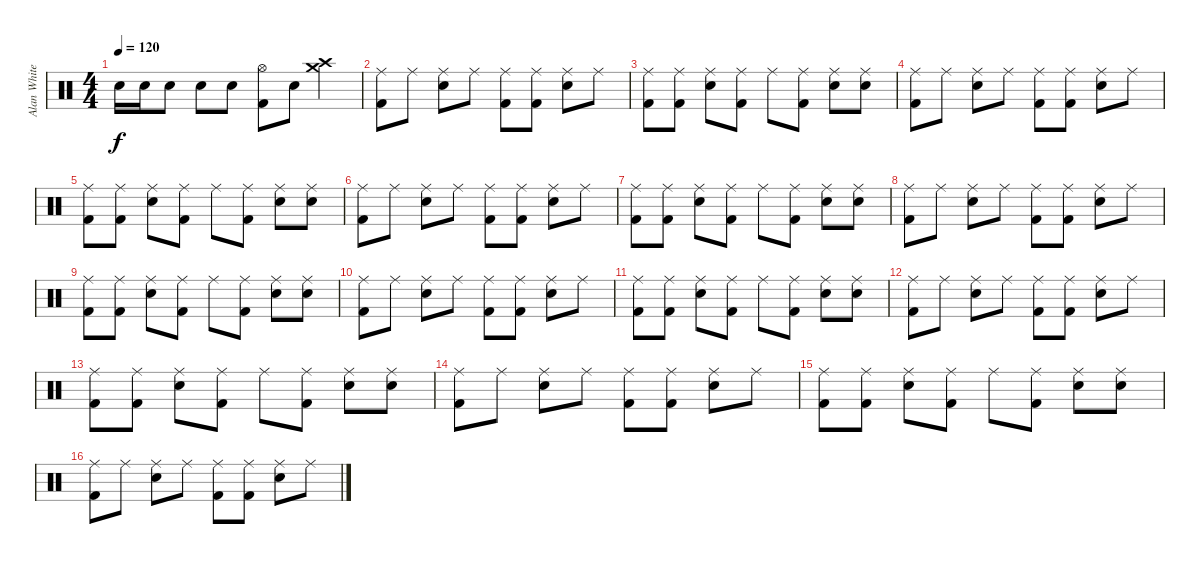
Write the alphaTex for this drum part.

\track ("Alan White - Drums" "Alan White") {instrument percussion}
\staff {score}
\articulation defaults
\ts (4 4)
\tempo 120
\clef neutral
\ks c "Electric Snare (hit)".16{dy f} "Electric Snare (hit)".16 "Electric Snare (hit)".8 "Electric Snare (hit)".8 "Electric Snare (hit)".8
("Hi-Hat (open)" "Kick (hit) 2").8 "Electric Snare (hit)".8 ("Crash medium (hit)" "Crash high (hit)").4 |
("Ride (middle)" "Kick (hit) 2").8 "Ride (middle)".8 ("Ride (middle)" "Electric Snare (hit)").8 "Ride (middle)".8 ("Ride (middle)" "Kick (hit) 2").8 ("Ride (middle)" "Kick (hit) 2").8 ("Ride (middle)" "Electric Snare (hit)").8 "Ride (middle)".8 |
("Ride (middle)" "Kick (hit) 2").8 ("Ride (middle)" "Kick (hit) 2").8 ("Ride (middle)" "Electric Snare (hit)").8 ("Ride (middle)" "Kick (hit) 2").8 "Ride (middle)".8 ("Ride (middle)" "Kick (hit) 2").8 ("Ride (middle)" "Electric Snare (hit)").8 ("Ride (middle)" "Electric Snare (hit)").8 |
("Ride (middle)" "Kick (hit) 2").8 "Ride (middle)".8 ("Ride (middle)" "Electric Snare (hit)").8 "Ride (middle)".8 ("Ride (middle)" "Kick (hit) 2").8 ("Ride (middle)" "Kick (hit) 2").8 ("Ride (middle)" "Electric Snare (hit)").8 "Ride (middle)".8 |
("Ride (middle)" "Kick (hit) 2").8 ("Ride (middle)" "Kick (hit) 2").8 ("Ride (middle)" "Electric Snare (hit)").8 ("Ride (middle)" "Kick (hit) 2").8 "Ride (middle)".8 ("Ride (middle)" "Kick (hit) 2").8 ("Ride (middle)" "Electric Snare (hit)").8 ("Ride (middle)" "Electric Snare (hit)").8 |
("Ride (middle)" "Kick (hit) 2").8 "Ride (middle)".8 ("Ride (middle)" "Electric Snare (hit)").8 "Ride (middle)".8 ("Ride (middle)" "Kick (hit) 2").8 ("Ride (middle)" "Kick (hit) 2").8 ("Ride (middle)" "Electric Snare (hit)").8 "Ride (middle)".8 |
("Ride (middle)" "Kick (hit) 2").8 ("Ride (middle)" "Kick (hit) 2").8 ("Ride (middle)" "Electric Snare (hit)").8 ("Ride (middle)" "Kick (hit) 2").8 "Ride (middle)".8 ("Ride (middle)" "Kick (hit) 2").8 ("Ride (middle)" "Electric Snare (hit)").8 ("Ride (middle)" "Electric Snare (hit)").8 |
("Ride (middle)" "Kick (hit) 2").8 "Ride (middle)".8 ("Ride (middle)" "Electric Snare (hit)").8 "Ride (middle)".8 ("Ride (middle)" "Kick (hit) 2").8 ("Ride (middle)" "Kick (hit) 2").8 ("Ride (middle)" "Electric Snare (hit)").8 "Ride (middle)".8 |
("Ride (middle)" "Kick (hit) 2").8 ("Ride (middle)" "Kick (hit) 2").8 ("Ride (middle)" "Electric Snare (hit)").8 ("Ride (middle)" "Kick (hit) 2").8 "Ride (middle)".8 ("Ride (middle)" "Kick (hit) 2").8 ("Ride (middle)" "Electric Snare (hit)").8 ("Ride (middle)" "Electric Snare (hit)").8 |
("Ride (middle)" "Kick (hit) 2").8 "Ride (middle)".8 ("Ride (middle)" "Electric Snare (hit)").8 "Ride (middle)".8 ("Ride (middle)" "Kick (hit) 2").8 ("Ride (middle)" "Kick (hit) 2").8 ("Ride (middle)" "Electric Snare (hit)").8 "Ride (middle)".8 |
("Ride (middle)" "Kick (hit) 2").8 ("Ride (middle)" "Kick (hit) 2").8 ("Ride (middle)" "Electric Snare (hit)").8 ("Ride (middle)" "Kick (hit) 2").8 "Ride (middle)".8 ("Ride (middle)" "Kick (hit) 2").8 ("Ride (middle)" "Electric Snare (hit)").8 ("Ride (middle)" "Electric Snare (hit)").8 |
("Ride (middle)" "Kick (hit) 2").8 "Ride (middle)".8 ("Ride (middle)" "Electric Snare (hit)").8 "Ride (middle)".8 ("Ride (middle)" "Kick (hit) 2").8 ("Ride (middle)" "Kick (hit) 2").8 ("Ride (middle)" "Electric Snare (hit)").8 "Ride (middle)".8 |
("Ride (middle)" "Kick (hit) 2").8 ("Ride (middle)" "Kick (hit) 2").8 ("Ride (middle)" "Electric Snare (hit)").8 ("Ride (middle)" "Kick (hit) 2").8 "Ride (middle)".8 ("Ride (middle)" "Kick (hit) 2").8 ("Ride (middle)" "Electric Snare (hit)").8 ("Ride (middle)" "Electric Snare (hit)").8 |
("Ride (middle)" "Kick (hit) 2").8 "Ride (middle)".8 ("Ride (middle)" "Electric Snare (hit)").8 "Ride (middle)".8 ("Ride (middle)" "Kick (hit) 2").8 ("Ride (middle)" "Kick (hit) 2").8 ("Ride (middle)" "Electric Snare (hit)").8 "Ride (middle)".8 |
("Ride (middle)" "Kick (hit) 2").8 ("Ride (middle)" "Kick (hit) 2").8 ("Ride (middle)" "Electric Snare (hit)").8 ("Ride (middle)" "Kick (hit) 2").8 "Ride (middle)".8 ("Ride (middle)" "Kick (hit) 2").8 ("Ride (middle)" "Electric Snare (hit)").8 ("Ride (middle)" "Electric Snare (hit)").8 |
("Ride (middle)" "Kick (hit) 2").8 "Ride (middle)".8 ("Ride (middle)" "Electric Snare (hit)").8 "Ride (middle)".8 ("Ride (middle)" "Kick (hit) 2").8 ("Ride (middle)" "Kick (hit) 2").8 ("Ride (middle)" "Electric Snare (hit)").8 "Ride (middle)".8
